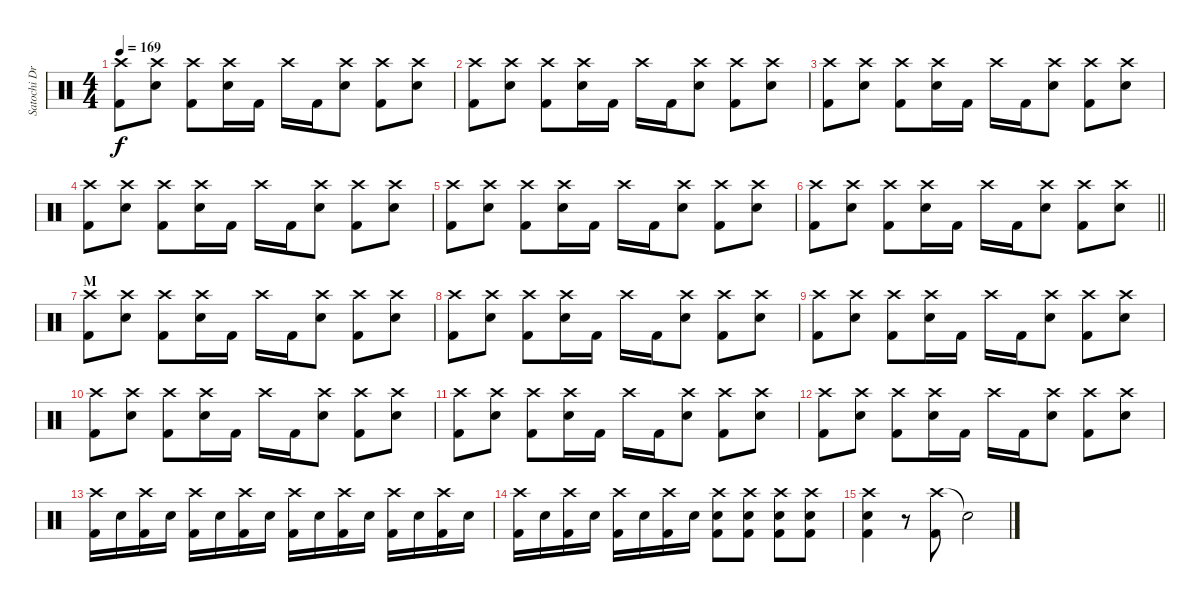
\track ("Satochi Drums" "Satochi Dr") {instrument percussion}
\staff {score}
\articulation defaults
\ts (4 4)
\tempo 169
\clef neutral
\ks c
("Crash high (hit)" "Kick (hit) 2").8{dy f} ("Crash high (hit)" "Snare (hit) 2").8 ("Crash high (hit)" "Kick (hit) 2").8 ("Crash high (hit)" "Snare (hit) 2").16 "Kick (hit) 2".16 "Crash high (hit)".16 "Kick (hit) 2".16 ("Crash high (hit)" "Snare (hit) 2").8 ("Crash high (hit)" "Kick (hit) 2").8 ("Crash high (hit)" "Snare (hit) 2").8 |
("Crash high (hit)" "Kick (hit) 2").8 ("Crash high (hit)" "Snare (hit) 2").8 ("Crash high (hit)" "Kick (hit) 2").8 ("Crash high (hit)" "Snare (hit) 2").16 "Kick (hit) 2".16 "Crash high (hit)".16 "Kick (hit) 2".16 ("Crash high (hit)" "Snare (hit) 2").8 ("Crash high (hit)" "Kick (hit) 2").8 ("Crash high (hit)" "Snare (hit) 2").8 |
("Crash high (hit)" "Kick (hit) 2").8 ("Crash high (hit)" "Snare (hit) 2").8 ("Crash high (hit)" "Kick (hit) 2").8 ("Crash high (hit)" "Snare (hit) 2").16 "Kick (hit) 2".16 "Crash high (hit)".16 "Kick (hit) 2".16 ("Crash high (hit)" "Snare (hit) 2").8 ("Crash high (hit)" "Kick (hit) 2").8 ("Crash high (hit)" "Snare (hit) 2").8 |
("Crash high (hit)" "Kick (hit) 2").8 ("Crash high (hit)" "Snare (hit) 2").8 ("Crash high (hit)" "Kick (hit) 2").8 ("Crash high (hit)" "Snare (hit) 2").16 "Kick (hit) 2".16 "Crash high (hit)".16 "Kick (hit) 2".16 ("Crash high (hit)" "Snare (hit) 2").8 ("Crash high (hit)" "Kick (hit) 2").8 ("Crash high (hit)" "Snare (hit) 2").8 |
("Crash high (hit)" "Kick (hit) 2").8 ("Crash high (hit)" "Snare (hit) 2").8 ("Crash high (hit)" "Kick (hit) 2").8 ("Crash high (hit)" "Snare (hit) 2").16 "Kick (hit) 2".16 "Crash high (hit)".16 "Kick (hit) 2".16 ("Crash high (hit)" "Snare (hit) 2").8 ("Crash high (hit)" "Kick (hit) 2").8 ("Crash high (hit)" "Snare (hit) 2").8 |
\barLineRight lightlight
("Crash high (hit)" "Kick (hit) 2").8 ("Crash high (hit)" "Snare (hit) 2").8 ("Crash high (hit)" "Kick (hit) 2").8 ("Crash high (hit)" "Snare (hit) 2").16 "Kick (hit) 2".16 "Crash high (hit)".16 "Kick (hit) 2".16 ("Crash high (hit)" "Snare (hit) 2").8 ("Crash high (hit)" "Kick (hit) 2").8 ("Crash high (hit)" "Snare (hit) 2").8 |
\section ("" "M")
("Crash high (hit)" "Kick (hit) 2").8 ("Crash high (hit)" "Snare (hit) 2").8 ("Crash high (hit)" "Kick (hit) 2").8 ("Crash high (hit)" "Snare (hit) 2").16 "Kick (hit) 2".16 "Crash high (hit)".16 "Kick (hit) 2".16 ("Crash high (hit)" "Snare (hit) 2").8 ("Crash high (hit)" "Kick (hit) 2").8 ("Crash high (hit)" "Snare (hit) 2").8 |
("Crash high (hit)" "Kick (hit) 2").8 ("Crash high (hit)" "Snare (hit) 2").8 ("Crash high (hit)" "Kick (hit) 2").8 ("Crash high (hit)" "Snare (hit) 2").16 "Kick (hit) 2".16 "Crash high (hit)".16 "Kick (hit) 2".16 ("Crash high (hit)" "Snare (hit) 2").8 ("Crash high (hit)" "Kick (hit) 2").8 ("Crash high (hit)" "Snare (hit) 2").8 |
("Crash high (hit)" "Kick (hit) 2").8 ("Crash high (hit)" "Snare (hit) 2").8 ("Crash high (hit)" "Kick (hit) 2").8 ("Crash high (hit)" "Snare (hit) 2").16 "Kick (hit) 2".16 "Crash high (hit)".16 "Kick (hit) 2".16 ("Crash high (hit)" "Snare (hit) 2").8 ("Crash high (hit)" "Kick (hit) 2").8 ("Crash high (hit)" "Snare (hit) 2").8 |
("Crash high (hit)" "Kick (hit) 2").8 ("Crash high (hit)" "Snare (hit) 2").8 ("Crash high (hit)" "Kick (hit) 2").8 ("Crash high (hit)" "Snare (hit) 2").16 "Kick (hit) 2".16 "Crash high (hit)".16 "Kick (hit) 2".16 ("Crash high (hit)" "Snare (hit) 2").8 ("Crash high (hit)" "Kick (hit) 2").8 ("Crash high (hit)" "Snare (hit) 2").8 |
("Crash high (hit)" "Kick (hit) 2").8 ("Crash high (hit)" "Snare (hit) 2").8 ("Crash high (hit)" "Kick (hit) 2").8 ("Crash high (hit)" "Snare (hit) 2").16 "Kick (hit) 2".16 "Crash high (hit)".16 "Kick (hit) 2".16 ("Crash high (hit)" "Snare (hit) 2").8 ("Crash high (hit)" "Kick (hit) 2").8 ("Crash high (hit)" "Snare (hit) 2").8 |
("Crash high (hit)" "Kick (hit) 2").8 ("Crash high (hit)" "Snare (hit) 2").8 ("Crash high (hit)" "Kick (hit) 2").8 ("Crash high (hit)" "Snare (hit) 2").16 "Kick (hit) 2".16 "Crash high (hit)".16 "Kick (hit) 2".16 ("Crash high (hit)" "Snare (hit) 2").8 ("Crash high (hit)" "Kick (hit) 2").8 ("Crash high (hit)" "Snare (hit) 2").8 |
("Crash high (hit)" "Kick (hit) 2").16 "Snare (hit) 2".16 ("Crash high (hit)" "Kick (hit) 2").16 "Snare (hit) 2".16 ("Crash high (hit)" "Kick (hit) 2").16 "Snare (hit) 2".16 ("Crash high (hit)" "Kick (hit) 2").16 "Snare (hit) 2".16 ("Crash high (hit)" "Kick (hit) 2").16 "Snare (hit) 2".16 ("Crash high (hit)" "Kick (hit) 2").16 "Snare (hit) 2".16 ("Crash high (hit)" "Kick (hit) 2").16 "Snare (hit) 2".16 ("Crash high (hit)" "Kick (hit) 2").16 "Snare (hit) 2".16 |
("Crash high (hit)" "Kick (hit) 2").16 "Snare (hit) 2".16 ("Crash high (hit)" "Kick (hit) 2").16 "Snare (hit) 2".16 ("Crash high (hit)" "Kick (hit) 2").16 "Snare (hit) 2".16 ("Crash high (hit)" "Kick (hit) 2").16 "Snare (hit) 2".16 ("Crash high (hit)" "Snare (hit) 2" "Kick (hit) 2").8 ("Crash high (hit)" "Snare (hit) 2" "Kick (hit) 2").8 ("Crash high (hit)" "Snare (hit) 2" "Kick (hit) 2").8 ("Crash high (hit)" "Snare (hit) 2" "Kick (hit) 2").8 |
("Crash high (hit)" "Snare (hit) 2" "Kick (hit) 2").4 r.8 ("Crash high (hit)" "Kick (hit) 2").8 "Snare (hit)"{t}.2
